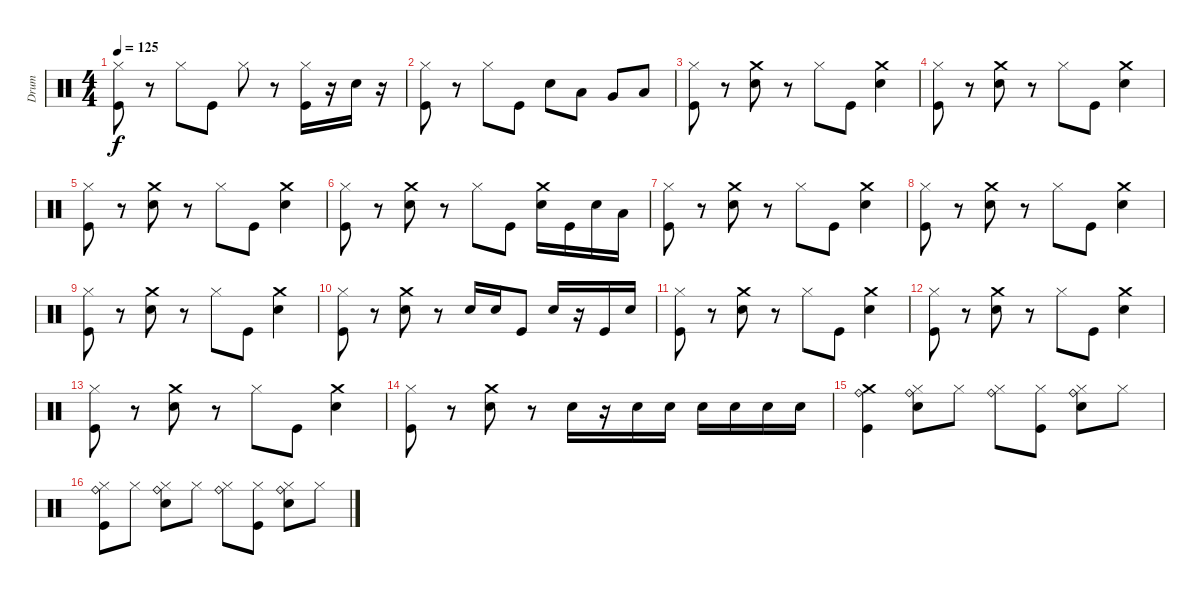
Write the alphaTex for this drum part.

\track ("Drum" "Drum") {instrument percussion}
\staff {score}
\articulation defaults
\ts (4 4)
\tempo 125
\clef neutral
\ks c
("Kick (hit)" "Hi-Hat (closed)").8{dy f} r.8 "Hi-Hat (closed)".8 "Kick (hit)".8 "Hi-Hat (closed)".8 r.8 ("Kick (hit)" "Hi-Hat (closed)").16 r.16 "Electric Snare (hit)".16 r.16 |
("Kick (hit)" "Hi-Hat (closed)").8 r.8 "Hi-Hat (closed)".8 "Kick (hit)".8 "Electric Snare (hit)".8 "Low Tom (hit)".8 "Very Low Tom (hit)".8 "Low Floor Tom (hit)".8 |
("Kick (hit)" "Hi-Hat (closed)").8 r.8 ("Electric Snare (hit)" "Crash medium (hit)").8 r.8 "Hi-Hat (closed)".8 "Kick (hit)".8 ("Electric Snare (hit)" "Crash medium (hit)").4 |
("Kick (hit)" "Hi-Hat (closed)").8 r.8 ("Electric Snare (hit)" "Crash medium (hit)").8 r.8 "Hi-Hat (closed)".8 "Kick (hit)".8 ("Electric Snare (hit)" "Crash medium (hit)").4 |
("Kick (hit)" "Hi-Hat (closed)").8 r.8 ("Electric Snare (hit)" "Crash medium (hit)").8 r.8 "Hi-Hat (closed)".8 "Kick (hit)".8 ("Electric Snare (hit)" "Crash medium (hit)").4 |
("Kick (hit)" "Hi-Hat (closed)").8 r.8 ("Electric Snare (hit)" "Crash medium (hit)").8 r.8 "Hi-Hat (closed)".8 "Kick (hit)".8 ("Electric Snare (hit)" "Crash medium (hit)").16 "Kick (hit)".16 "Electric Snare (hit)".16 "Low Floor Tom (hit)".16 |
("Kick (hit)" "Hi-Hat (closed)").8 r.8 ("Electric Snare (hit)" "Crash medium (hit)").8 r.8 "Hi-Hat (closed)".8 "Kick (hit)".8 ("Electric Snare (hit)" "Crash medium (hit)").4 |
("Kick (hit)" "Hi-Hat (closed)").8 r.8 ("Electric Snare (hit)" "Crash medium (hit)").8 r.8 "Hi-Hat (closed)".8 "Kick (hit)".8 ("Electric Snare (hit)" "Crash medium (hit)").4 |
("Kick (hit)" "Hi-Hat (closed)").8 r.8 ("Electric Snare (hit)" "Crash medium (hit)").8 r.8 "Hi-Hat (closed)".8 "Kick (hit)".8 ("Electric Snare (hit)" "Crash medium (hit)").4 |
("Kick (hit)" "Hi-Hat (closed)").8 r.8 ("Electric Snare (hit)" "Crash medium (hit)").8 r.8 "Electric Snare (hit)".16 "Electric Snare (hit)".16 "Kick (hit)".8 "Electric Snare (hit)".16 r.16 "Kick (hit)".16 "Electric Snare (hit)".16 |
("Kick (hit)" "Hi-Hat (closed)").8 r.8 ("Electric Snare (hit)" "Crash medium (hit)").8 r.8 "Hi-Hat (closed)".8 "Kick (hit)".8 ("Electric Snare (hit)" "Crash medium (hit)").4 |
("Kick (hit)" "Hi-Hat (closed)").8 r.8 ("Electric Snare (hit)" "Crash medium (hit)").8 r.8 "Hi-Hat (closed)".8 "Kick (hit)".8 ("Electric Snare (hit)" "Crash medium (hit)").4 |
("Kick (hit)" "Hi-Hat (closed)").8 r.8 ("Electric Snare (hit)" "Crash medium (hit)").8 r.8 "Hi-Hat (closed)".8 "Kick (hit)".8 ("Electric Snare (hit)" "Crash medium (hit)").4 |
("Kick (hit)" "Hi-Hat (closed)").8 r.8 ("Electric Snare (hit)" "Crash medium (hit)").8 r.8 "Electric Snare (hit)".16 r.16 "Electric Snare (hit)".16 "Electric Snare (hit)".16 "Electric Snare (hit)".16 "Electric Snare (hit)".16 "Electric Snare (hit)".16 "Electric Snare (hit)".16 |
("Kick (hit)" "Crash medium (hit)" "Ride (bell)").4 ("Electric Snare (hit)" "Hi-Hat (closed)" "Ride (bell)").8 "Hi-Hat (closed)".8 ("Hi-Hat (closed)" "Ride (bell)").8 ("Kick (hit)" "Hi-Hat (closed)").8 ("Electric Snare (hit)" "Hi-Hat (closed)" "Ride (bell)").8 "Hi-Hat (closed)".8 |
("Kick (hit)" "Hi-Hat (closed)" "Ride (bell)").8 "Hi-Hat (closed)".8 ("Electric Snare (hit)" "Hi-Hat (closed)" "Ride (bell)").8 "Hi-Hat (closed)".8 ("Hi-Hat (closed)" "Ride (bell)").8 ("Kick (hit)" "Hi-Hat (closed)").8 ("Electric Snare (hit)" "Hi-Hat (closed)" "Ride (bell)").8 "Hi-Hat (closed)".8
